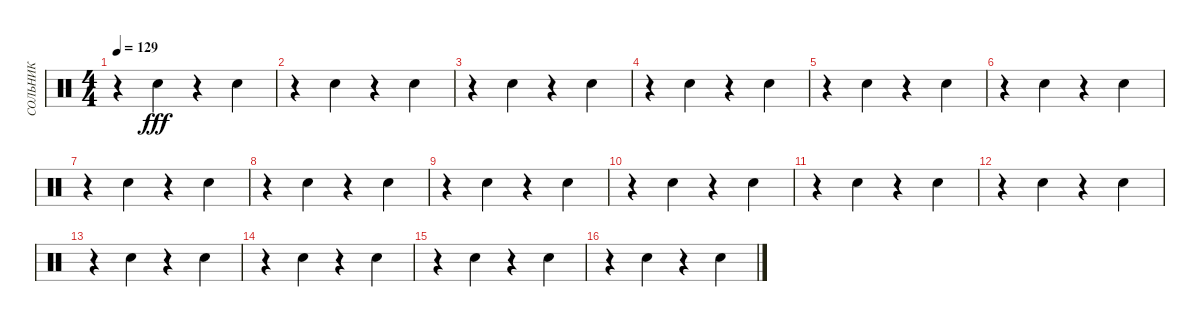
\track ("СОЛЬНИК" "СОЛЬНИК") {instrument percussion}
\staff {score}
\articulation defaults
\ts (4 4)
\tempo 129
\clef neutral
\ks c
r.4{dy fff} "Snare (hit) 2".4 r.4 "Snare (hit) 2".4 |
r.4 "Snare (hit) 2".4 r.4 "Snare (hit) 2".4 |
r.4 "Snare (hit) 2".4 r.4 "Snare (hit) 2".4 |
r.4 "Snare (hit) 2".4 r.4 "Snare (hit) 2".4 |
r.4 "Snare (hit) 2".4 r.4 "Snare (hit) 2".4 |
r.4 "Snare (hit) 2".4 r.4 "Snare (hit) 2".4 |
r.4 "Snare (hit) 2".4 r.4 "Snare (hit) 2".4 |
r.4 "Snare (hit) 2".4 r.4 "Snare (hit) 2".4 |
r.4 "Snare (hit) 2".4 r.4 "Snare (hit) 2".4 |
r.4 "Snare (hit) 2".4 r.4 "Snare (hit) 2".4 |
r.4 "Snare (hit) 2".4 r.4 "Snare (hit) 2".4 |
r.4 "Snare (hit) 2".4 r.4 "Snare (hit) 2".4 |
r.4 "Snare (hit) 2".4 r.4 "Snare (hit) 2".4 |
r.4 "Snare (hit) 2".4 r.4 "Snare (hit) 2".4 |
r.4 "Snare (hit) 2".4 r.4 "Snare (hit) 2".4 |
r.4 "Snare (hit) 2".4 r.4 "Snare (hit) 2".4
